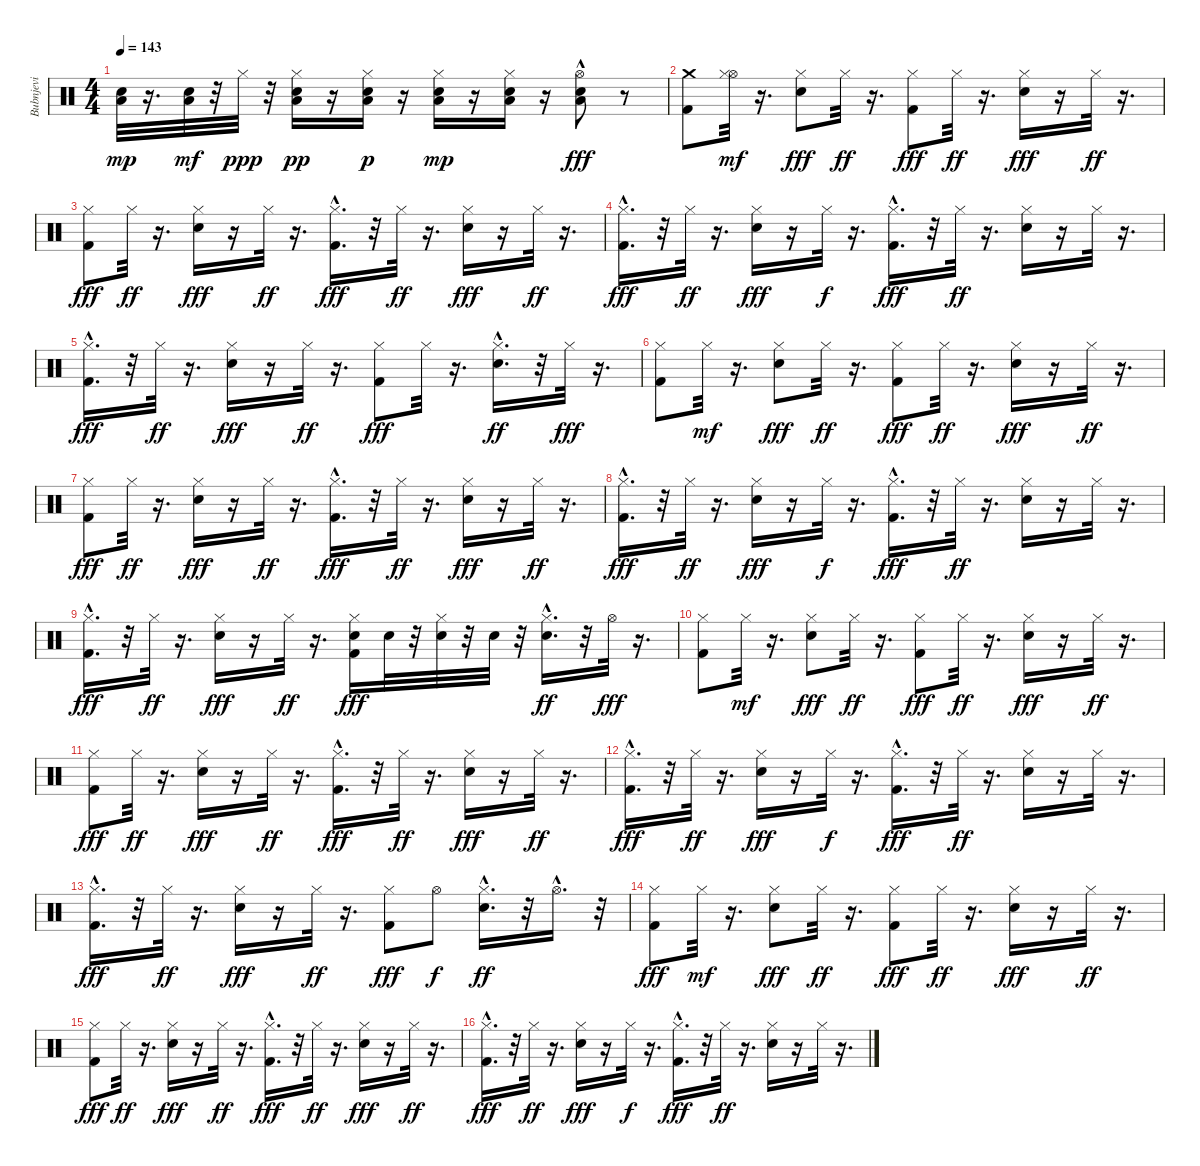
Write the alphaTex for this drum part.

\track ("Bubnjevi" "Bubnjevi") {instrument percussion}
\staff {score}
\articulation defaults
\ts (4 4)
\tempo 143
\clef neutral
\ks c
("Snare (hit) 2" "Low Floor Tom (hit)").32{dy mp} r.16{d} ("Low Floor Tom (hit)" "Snare (hit) 2").32{dy mf} r.32 "Hi-Hat (closed)".32{dy ppp} r.32 ("Snare (hit) 2" "Low Floor Tom (hit)" "Hi-Hat (closed)").16{dy pp} r.16 ("Snare (hit) 2" "Low Floor Tom (hit)" "Hi-Hat (closed)").16{dy p} r.16 ("Snare (hit) 2" "Low Floor Tom (hit)" "Hi-Hat (closed)").16{dy mp} r.16 ("Snare (hit) 2" "Low Floor Tom (hit)" "Hi-Hat (closed)").16 r.16 ("Snare (hit) 2"{hac} "Low Floor Tom (hit)"{hac} "Hi-Hat (open)").8{dy fff} r.8 |
("Crash medium (hit)" "Kick (hit) 2").8 ("Hi-Hat (open)" "Hi-Hat (closed)").32{dy mf} r.16{d} ("Snare (hit) 2" "Hi-Hat (closed)").8{dy fff} "Hi-Hat (closed)".32{dy ff} r.16{d} ("Hi-Hat (closed)" "Kick (hit) 2").8{dy fff} "Hi-Hat (closed)".32{dy ff} r.16{d} ("Snare (hit) 2" "Hi-Hat (closed)").16{dy fff} r.16 "Hi-Hat (closed)".32{dy ff} r.16{d} |
("Hi-Hat (closed)" "Kick (hit) 2").8{dy fff} "Hi-Hat (closed)".32{dy ff} r.16{d} ("Snare (hit) 2" "Hi-Hat (closed)").16{dy fff} r.16 "Hi-Hat (closed)".32{dy ff} r.16{d} ("Hi-Hat (closed)" "Kick (hit) 2"{hac}).16{d dy fff} r.32 "Hi-Hat (closed)".32{dy ff} r.16{d} ("Hi-Hat (closed)" "Snare (hit) 2").16{dy fff} r.16 "Hi-Hat (closed)".32{dy ff} r.16{d} |
("Hi-Hat (closed)" "Kick (hit) 2"{hac}).16{d dy fff} r.32 "Hi-Hat (closed)".32{dy ff} r.16{d} ("Snare (hit) 2" "Hi-Hat (closed)").16{dy fff} r.16 "Hi-Hat (closed)".32{dy f} r.16{d} ("Hi-Hat (closed)" "Kick (hit) 2"{hac}).16{d dy fff} r.32 "Hi-Hat (closed)".32{dy ff} r.16{d} ("Snare (hit) 2" "Hi-Hat (closed)").16 r.16 "Hi-Hat (closed)".32 r.16{d} |
("Hi-Hat (closed)" "Kick (hit) 2"{hac}).16{d dy fff} r.32 "Hi-Hat (closed)".32{dy ff} r.16{d} ("Snare (hit) 2" "Hi-Hat (closed)").16{dy fff} r.16 "Hi-Hat (closed)".32{dy ff} r.16{d} ("Hi-Hat (closed)" "Kick (hit) 2").8{dy fff} "Hi-Hat (closed)".32 r.16{d} ("Snare (hit) 2"{hac} "Hi-Hat (closed)").16{d dy ff} r.32 "Hi-Hat (closed)".32{dy fff} r.16{d} |
("Hi-Hat (closed)" "Kick (hit) 2").8 "Hi-Hat (closed)".32{dy mf} r.16{d} ("Snare (hit) 2" "Hi-Hat (closed)").8{dy fff} "Hi-Hat (closed)".32{dy ff} r.16{d} ("Hi-Hat (closed)" "Kick (hit) 2").8{dy fff} "Hi-Hat (closed)".32{dy ff} r.16{d} ("Snare (hit) 2" "Hi-Hat (closed)").16{dy fff} r.16 "Hi-Hat (closed)".32{dy ff} r.16{d} |
("Hi-Hat (closed)" "Kick (hit) 2").8{dy fff} "Hi-Hat (closed)".32{dy ff} r.16{d} ("Snare (hit) 2" "Hi-Hat (closed)").16{dy fff} r.16 "Hi-Hat (closed)".32{dy ff} r.16{d} ("Hi-Hat (closed)" "Kick (hit) 2"{hac}).16{d dy fff} r.32 "Hi-Hat (closed)".32{dy ff} r.16{d} ("Hi-Hat (closed)" "Snare (hit) 2").16{dy fff} r.16 "Hi-Hat (closed)".32{dy ff} r.16{d} |
("Hi-Hat (closed)" "Kick (hit) 2"{hac}).16{d dy fff} r.32 "Hi-Hat (closed)".32{dy ff} r.16{d} ("Snare (hit) 2" "Hi-Hat (closed)").16{dy fff} r.16 "Hi-Hat (closed)".32{dy f} r.16{d} ("Hi-Hat (closed)" "Kick (hit) 2"{hac}).16{d dy fff} r.32 "Hi-Hat (closed)".32{dy ff} r.16{d} ("Snare (hit) 2" "Hi-Hat (closed)").16 r.16 "Hi-Hat (closed)".32 r.16{d} |
("Hi-Hat (closed)" "Kick (hit) 2"{hac}).16{d dy fff} r.32 "Hi-Hat (closed)".32{dy ff} r.16{d} ("Snare (hit) 2" "Hi-Hat (closed)").16{dy fff} r.16 "Hi-Hat (closed)".32{dy ff} r.16{d} ("Hi-Hat (closed)" "Snare (hit) 2" "Kick (hit) 2").16{dy fff} "Snare (hit) 2".32 r.32 ("Hi-Hat (closed)" "Snare (hit) 2").32 r.32 "Snare (hit) 2".32 r.32 ("Snare (hit) 2"{hac} "Hi-Hat (closed)").16{d dy ff} r.32 "Hi-Hat (open)".32{dy fff} r.16{d} |
("Hi-Hat (closed)" "Kick (hit) 2").8 "Hi-Hat (closed)".32{dy mf} r.16{d} ("Snare (hit) 2" "Hi-Hat (closed)").8{dy fff} "Hi-Hat (closed)".32{dy ff} r.16{d} ("Hi-Hat (closed)" "Kick (hit) 2").8{dy fff} "Hi-Hat (closed)".32{dy ff} r.16{d} ("Snare (hit) 2" "Hi-Hat (closed)").16{dy fff} r.16 "Hi-Hat (closed)".32{dy ff} r.16{d} |
("Hi-Hat (closed)" "Kick (hit) 2").8{dy fff} "Hi-Hat (closed)".32{dy ff} r.16{d} ("Snare (hit) 2" "Hi-Hat (closed)").16{dy fff} r.16 "Hi-Hat (closed)".32{dy ff} r.16{d} ("Hi-Hat (closed)" "Kick (hit) 2"{hac}).16{d dy fff} r.32 "Hi-Hat (closed)".32{dy ff} r.16{d} ("Hi-Hat (closed)" "Snare (hit) 2").16{dy fff} r.16 "Hi-Hat (closed)".32{dy ff} r.16{d} |
("Hi-Hat (closed)" "Kick (hit) 2"{hac}).16{d dy fff} r.32 "Hi-Hat (closed)".32{dy ff} r.16{d} ("Snare (hit) 2" "Hi-Hat (closed)").16{dy fff} r.16 "Hi-Hat (closed)".32{dy f} r.16{d} ("Hi-Hat (closed)" "Kick (hit) 2"{hac}).16{d dy fff} r.32 "Hi-Hat (closed)".32{dy ff} r.16{d} ("Snare (hit) 2" "Hi-Hat (closed)").16 r.16 "Hi-Hat (closed)".32 r.16{d} |
("Hi-Hat (closed)" "Kick (hit) 2"{hac}).16{d dy fff} r.32 "Hi-Hat (closed)".32{dy ff} r.16{d} ("Snare (hit) 2" "Hi-Hat (closed)").16{dy fff} r.16 "Hi-Hat (closed)".32{dy ff} r.16{d} ("Hi-Hat (closed)" "Kick (hit) 2").8{dy fff} "Hi-Hat (open)".8{dy f} ("Snare (hit) 2"{hac} "Hi-Hat (closed)").16{d dy ff} r.32 "Hi-Hat (open)"{hac}.16{d} r.32 |
("Hi-Hat (closed)" "Kick (hit) 2").8{dy fff} "Hi-Hat (closed)".32{dy mf} r.16{d} ("Snare (hit) 2" "Hi-Hat (closed)").8{dy fff} "Hi-Hat (closed)".32{dy ff} r.16{d} ("Hi-Hat (closed)" "Kick (hit) 2").8{dy fff} "Hi-Hat (closed)".32{dy ff} r.16{d} ("Snare (hit) 2" "Hi-Hat (closed)").16{dy fff} r.16 "Hi-Hat (closed)".32{dy ff} r.16{d} |
("Hi-Hat (closed)" "Kick (hit) 2").8{dy fff} "Hi-Hat (closed)".32{dy ff} r.16{d} ("Snare (hit) 2" "Hi-Hat (closed)").16{dy fff} r.16 "Hi-Hat (closed)".32{dy ff} r.16{d} ("Hi-Hat (closed)" "Kick (hit) 2"{hac}).16{d dy fff} r.32 "Hi-Hat (closed)".32{dy ff} r.16{d} ("Hi-Hat (closed)" "Snare (hit) 2").16{dy fff} r.16 "Hi-Hat (closed)".32{dy ff} r.16{d} |
("Hi-Hat (closed)" "Kick (hit) 2"{hac}).16{d dy fff} r.32 "Hi-Hat (closed)".32{dy ff} r.16{d} ("Snare (hit) 2" "Hi-Hat (closed)").16{dy fff} r.16 "Hi-Hat (closed)".32{dy f} r.16{d} ("Hi-Hat (closed)" "Kick (hit) 2"{hac}).16{d dy fff} r.32 "Hi-Hat (closed)".32{dy ff} r.16{d} ("Snare (hit) 2" "Hi-Hat (closed)").16 r.16 "Hi-Hat (closed)".32 r.16{d}
